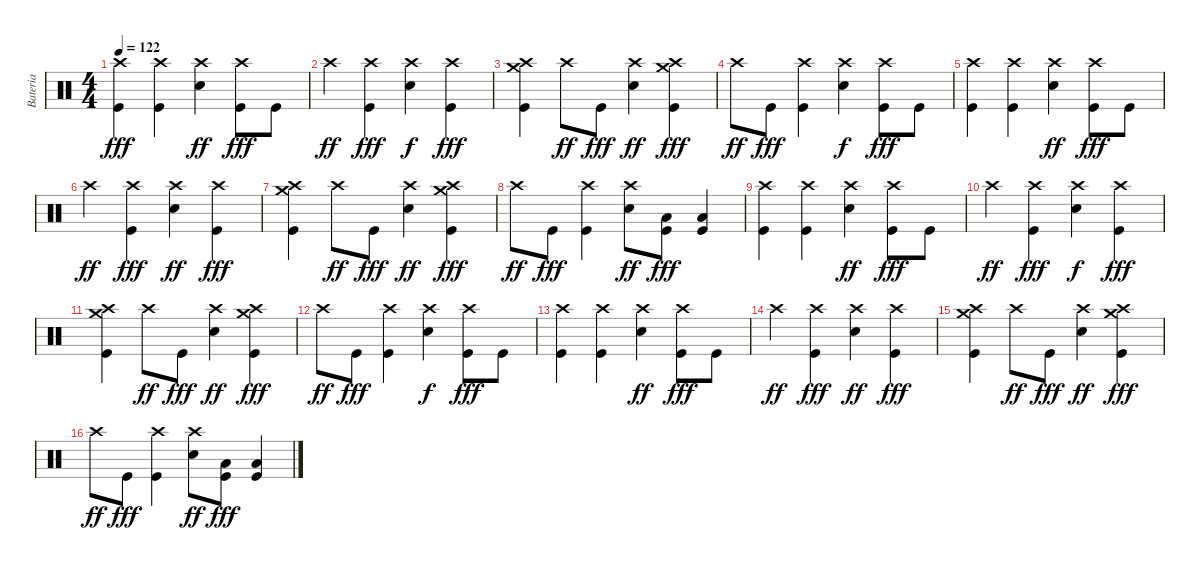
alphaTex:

\track ("Bateria" "Bateria") {instrument percussion}
\staff {score}
\articulation defaults
\ts (4 4)
\tempo 122
\clef neutral
\ks c
("Crash high (hit)" "Kick (hit)").4{dy fff} ("Crash high (hit)" "Kick (hit)").4 ("Crash high (hit)" "Snare (hit) 2").4{dy ff} ("Crash high (hit)" "Kick (hit)").8{dy fff} "Kick (hit)".8 |
"Crash high (hit)".4{dy ff} ("Crash high (hit)" "Kick (hit)").4{dy fff} ("Crash high (hit)" "Snare (hit) 2").4{dy f} ("Crash high (hit)" "Kick (hit)").4{dy fff} |
("Crash high (hit)" "Crash medium (hit)" "Kick (hit)").4 "Crash high (hit)".8{dy ff} "Kick (hit)".8{dy fff} ("Crash high (hit)" "Snare (hit) 2").4{dy ff} ("Crash high (hit)" "Crash medium (hit)" "Kick (hit)").4{dy fff} |
"Crash high (hit)".8{dy ff} "Kick (hit)".8{dy fff} ("Crash high (hit)" "Kick (hit)").4 ("Crash high (hit)" "Snare (hit) 2").4{dy f} ("Crash high (hit)" "Kick (hit)").8{dy fff} "Kick (hit)".8 |
("Crash high (hit)" "Kick (hit)").4 ("Crash high (hit)" "Kick (hit)").4 ("Crash high (hit)" "Snare (hit) 2").4{dy ff} ("Crash high (hit)" "Kick (hit)").8{dy fff} "Kick (hit)".8 |
"Crash high (hit)".4{dy ff} ("Crash high (hit)" "Kick (hit)").4{dy fff} ("Crash high (hit)" "Snare (hit) 2").4{dy ff} ("Crash high (hit)" "Kick (hit)").4{dy fff} |
("Crash high (hit)" "Crash medium (hit)" "Kick (hit)").4 "Crash high (hit)".8{dy ff} "Kick (hit)".8{dy fff} ("Crash high (hit)" "Snare (hit) 2").4{dy ff} ("Crash high (hit)" "Crash medium (hit)" "Kick (hit)").4{dy fff} |
"Crash high (hit)".8{dy ff} "Kick (hit)".8{dy fff} ("Crash high (hit)" "Kick (hit)").4 ("Crash high (hit)" "Snare (hit) 2").8{dy ff} ("Low Tom (hit)" "Kick (hit)").8{dy fff} ("Low Tom (hit)" "Kick (hit)").4 |
("Crash high (hit)" "Kick (hit)").4 ("Crash high (hit)" "Kick (hit)").4 ("Crash high (hit)" "Snare (hit) 2").4{dy ff} ("Crash high (hit)" "Kick (hit)").8{dy fff} "Kick (hit)".8 |
"Crash high (hit)".4{dy ff} ("Crash high (hit)" "Kick (hit)").4{dy fff} ("Crash high (hit)" "Snare (hit) 2").4{dy f} ("Crash high (hit)" "Kick (hit)").4{dy fff} |
("Crash high (hit)" "Crash medium (hit)" "Kick (hit)").4 "Crash high (hit)".8{dy ff} "Kick (hit)".8{dy fff} ("Crash high (hit)" "Snare (hit) 2").4{dy ff} ("Crash high (hit)" "Crash medium (hit)" "Kick (hit)").4{dy fff} |
"Crash high (hit)".8{dy ff} "Kick (hit)".8{dy fff} ("Crash high (hit)" "Kick (hit)").4 ("Crash high (hit)" "Snare (hit) 2").4{dy f} ("Crash high (hit)" "Kick (hit)").8{dy fff} "Kick (hit)".8 |
("Crash high (hit)" "Kick (hit)").4 ("Crash high (hit)" "Kick (hit)").4 ("Crash high (hit)" "Snare (hit) 2").4{dy ff} ("Crash high (hit)" "Kick (hit)").8{dy fff} "Kick (hit)".8 |
"Crash high (hit)".4{dy ff} ("Crash high (hit)" "Kick (hit)").4{dy fff} ("Crash high (hit)" "Snare (hit) 2").4{dy ff} ("Crash high (hit)" "Kick (hit)").4{dy fff} |
("Crash high (hit)" "Crash medium (hit)" "Kick (hit)").4 "Crash high (hit)".8{dy ff} "Kick (hit)".8{dy fff} ("Crash high (hit)" "Snare (hit) 2").4{dy ff} ("Crash high (hit)" "Crash medium (hit)" "Kick (hit)").4{dy fff} |
"Crash high (hit)".8{dy ff} "Kick (hit)".8{dy fff} ("Crash high (hit)" "Kick (hit)").4 ("Crash high (hit)" "Snare (hit) 2").8{dy ff} ("Low Tom (hit)" "Kick (hit)").8{dy fff} ("Low Tom (hit)" "Kick (hit)").4
